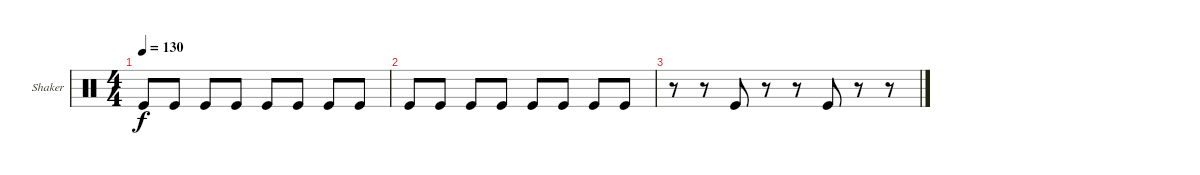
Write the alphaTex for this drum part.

\defaultSystemsLayout 4
\bracketExtendMode groupsimilarinstruments
\firstSystemTrackNameOrientation horizontal
\otherSystemsTrackNameOrientation horizontal
\track ("Shaker" "Shaker") {instrument percussion}
\staff {score}
\articulation defaults
\ts (4 4)
\tempo 130
\clef neutral
\scale
0.333333
\ks aminor "Kick (hit)".8{dy f} "Kick (hit)".8 "Kick (hit)".8 "Kick (hit)".8 "Kick (hit)".8 "Kick (hit)".8 "Kick (hit)".8 "Kick (hit)".8
|
\scale
0.333333 "Kick (hit)".8 "Kick (hit)".8 "Kick (hit)".8 "Kick (hit)".8 "Kick (hit)".8 "Kick (hit)".8 "Kick (hit)".8 "Kick (hit)".8 |
\scale
0.333333 r.8 r.8 "Kick (hit)".8 r.8 r.8 "Kick (hit)".8 r.8 r.8 |
\scale
0.333333 |
\scale
0.333333
